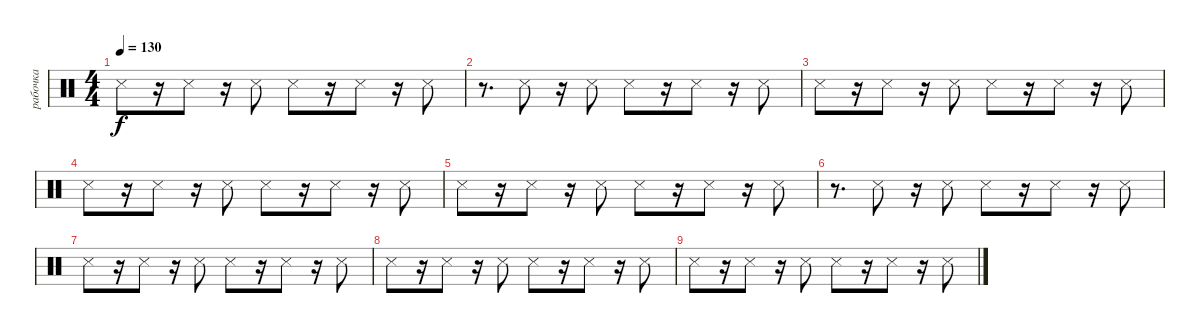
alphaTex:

\track ("рабочка" "рабочка") {instrument percussion}
\staff {score}
\articulation defaults
\ts (4 4)
\tempo 130
\clef neutral
\ks c "Snare (side stick) 3".8{dy f}
r.16 "Snare (side stick) 3".8 r.16 "Snare (side stick) 3".8 "Snare (side stick) 3".8 r.16 "Snare (side stick) 3".8 r.16 "Snare (side stick) 3".8 |
r.8{d} "Snare (side stick) 3".8 r.16 "Snare (side stick) 3".8 "Snare (side stick) 3".8 r.16 "Snare (side stick) 3".8 r.16 "Snare (side stick) 3".8 |
"Snare (side stick) 3".8 r.16 "Snare (side stick) 3".8 r.16 "Snare (side stick) 3".8 "Snare (side stick) 3".8 r.16 "Snare (side stick) 3".8 r.16 "Snare (side stick) 3".8 |
"Snare (side stick) 3".8 r.16 "Snare (side stick) 3".8 r.16 "Snare (side stick) 3".8 "Snare (side stick) 3".8 r.16 "Snare (side stick) 3".8 r.16 "Snare (side stick) 3".8 |
"Snare (side stick) 3".8 r.16 "Snare (side stick) 3".8 r.16 "Snare (side stick) 3".8 "Snare (side stick) 3".8 r.16 "Snare (side stick) 3".8 r.16 "Snare (side stick) 3".8 |
r.8{d} "Snare (side stick) 3".8 r.16 "Snare (side stick) 3".8 "Snare (side stick) 3".8 r.16 "Snare (side stick) 3".8 r.16 "Snare (side stick) 3".8 |
"Snare (side stick) 3".8 r.16 "Snare (side stick) 3".8 r.16 "Snare (side stick) 3".8 "Snare (side stick) 3".8 r.16 "Snare (side stick) 3".8 r.16 "Snare (side stick) 3".8 |
"Snare (side stick) 3".8 r.16 "Snare (side stick) 3".8 r.16 "Snare (side stick) 3".8 "Snare (side stick) 3".8 r.16 "Snare (side stick) 3".8 r.16 "Snare (side stick) 3".8 |
"Snare (side stick) 3".8 r.16 "Snare (side stick) 3".8 r.16 "Snare (side stick) 3".8 "Snare (side stick) 3".8 r.16 "Snare (side stick) 3".8 r.16 "Snare (side stick) 3".8
